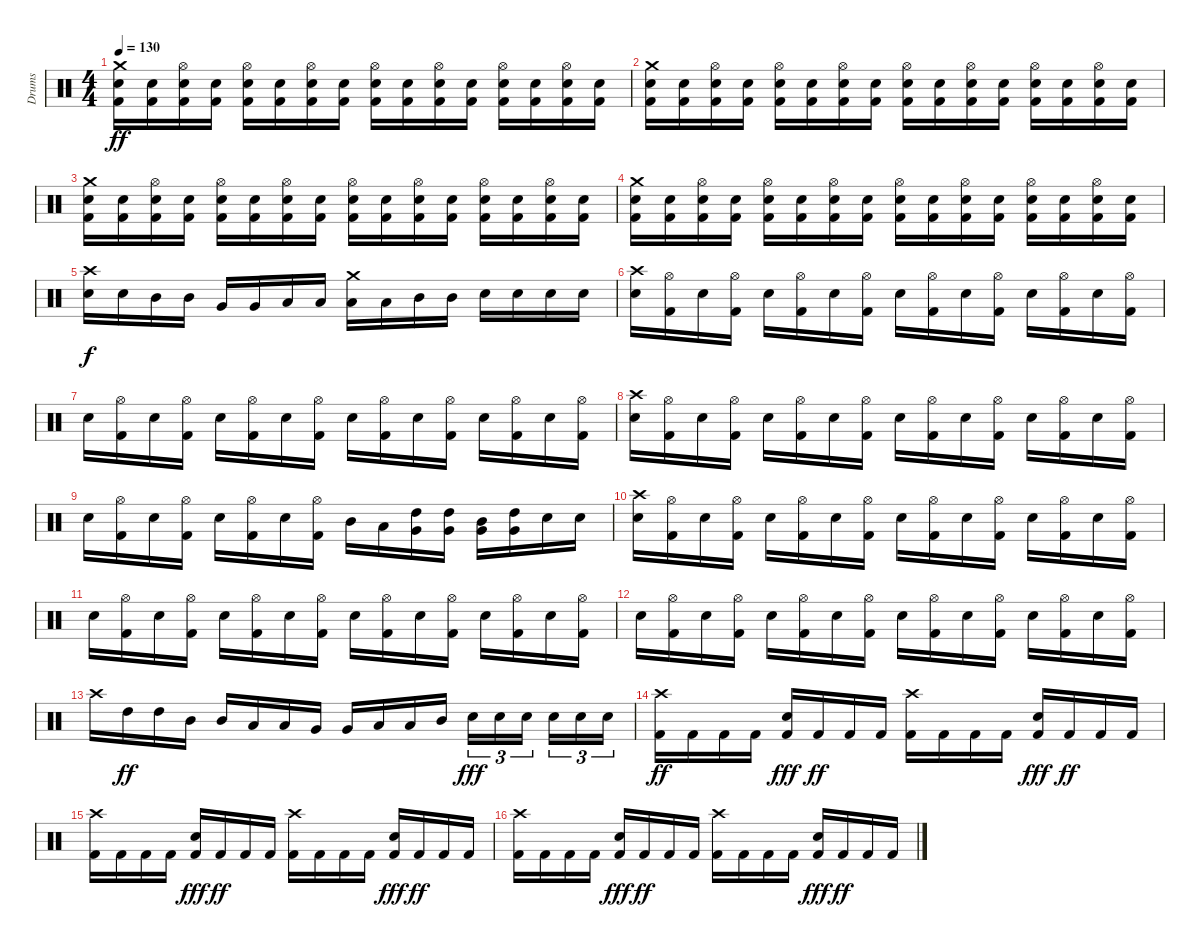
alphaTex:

\track ("Drums" "Drums") {instrument percussion}
\staff {score}
\articulation defaults
\ts (4 4)
\tempo 130
\clef neutral
\ks c
("Kick (hit) 2" "Snare (hit) 2" "Crash medium (hit)").16{dy ff} ("Kick (hit) 2" "Snare (hit) 2").16 ("Kick (hit) 2" "Snare (hit) 2" "Hi-Hat (open)").16 ("Kick (hit) 2" "Snare (hit) 2").16 ("Kick (hit) 2" "Snare (hit) 2" "Hi-Hat (open)").16 ("Kick (hit) 2" "Snare (hit) 2").16 ("Kick (hit) 2" "Snare (hit) 2" "Hi-Hat (open)").16 ("Kick (hit) 2" "Snare (hit) 2").16 ("Kick (hit) 2" "Snare (hit) 2" "Hi-Hat (open)").16 ("Kick (hit) 2" "Snare (hit) 2").16 ("Kick (hit) 2" "Snare (hit) 2" "Hi-Hat (open)").16 ("Kick (hit) 2" "Snare (hit) 2").16 ("Kick (hit) 2" "Snare (hit) 2" "Hi-Hat (open)").16 ("Kick (hit) 2" "Snare (hit) 2").16 ("Kick (hit) 2" "Snare (hit) 2" "Hi-Hat (open)").16 ("Kick (hit) 2" "Snare (hit) 2").16 |
("Kick (hit) 2" "Snare (hit) 2" "Crash medium (hit)").16 ("Kick (hit) 2" "Snare (hit) 2").16 ("Kick (hit) 2" "Snare (hit) 2" "Hi-Hat (open)").16 ("Kick (hit) 2" "Snare (hit) 2").16 ("Kick (hit) 2" "Snare (hit) 2" "Hi-Hat (open)").16 ("Kick (hit) 2" "Snare (hit) 2").16 ("Kick (hit) 2" "Snare (hit) 2" "Hi-Hat (open)").16 ("Kick (hit) 2" "Snare (hit) 2").16 ("Kick (hit) 2" "Snare (hit) 2" "Hi-Hat (open)").16 ("Kick (hit) 2" "Snare (hit) 2").16 ("Kick (hit) 2" "Snare (hit) 2" "Hi-Hat (open)").16 ("Kick (hit) 2" "Snare (hit) 2").16 ("Kick (hit) 2" "Snare (hit) 2" "Hi-Hat (open)").16 ("Kick (hit) 2" "Snare (hit) 2").16 ("Kick (hit) 2" "Snare (hit) 2" "Hi-Hat (open)").16 ("Kick (hit) 2" "Snare (hit) 2").16 |
("Kick (hit) 2" "Snare (hit) 2" "Crash medium (hit)").16 ("Kick (hit) 2" "Snare (hit) 2").16 ("Kick (hit) 2" "Snare (hit) 2" "Hi-Hat (open)").16 ("Kick (hit) 2" "Snare (hit) 2").16 ("Kick (hit) 2" "Snare (hit) 2" "Hi-Hat (open)").16 ("Kick (hit) 2" "Snare (hit) 2").16 ("Kick (hit) 2" "Snare (hit) 2" "Hi-Hat (open)").16 ("Kick (hit) 2" "Snare (hit) 2").16 ("Kick (hit) 2" "Snare (hit) 2" "Hi-Hat (open)").16 ("Kick (hit) 2" "Snare (hit) 2").16 ("Kick (hit) 2" "Snare (hit) 2" "Hi-Hat (open)").16 ("Kick (hit) 2" "Snare (hit) 2").16 ("Kick (hit) 2" "Snare (hit) 2" "Hi-Hat (open)").16 ("Kick (hit) 2" "Snare (hit) 2").16 ("Kick (hit) 2" "Snare (hit) 2" "Hi-Hat (open)").16 ("Kick (hit) 2" "Snare (hit) 2").16 |
("Kick (hit) 2" "Snare (hit) 2" "Crash medium (hit)").16 ("Kick (hit) 2" "Snare (hit) 2").16 ("Kick (hit) 2" "Snare (hit) 2" "Hi-Hat (open)").16 ("Kick (hit) 2" "Snare (hit) 2").16 ("Kick (hit) 2" "Snare (hit) 2" "Hi-Hat (open)").16 ("Kick (hit) 2" "Snare (hit) 2").16 ("Kick (hit) 2" "Snare (hit) 2" "Hi-Hat (open)").16 ("Kick (hit) 2" "Snare (hit) 2").16 ("Kick (hit) 2" "Snare (hit) 2" "Hi-Hat (open)").16 ("Kick (hit) 2" "Snare (hit) 2").16 ("Kick (hit) 2" "Snare (hit) 2" "Hi-Hat (open)").16 ("Kick (hit) 2" "Snare (hit) 2").16 ("Kick (hit) 2" "Snare (hit) 2" "Hi-Hat (open)").16 ("Kick (hit) 2" "Snare (hit) 2").16 ("Kick (hit) 2" "Snare (hit) 2" "Hi-Hat (open)").16 ("Kick (hit) 2" "Snare (hit) 2").16 |
("Crash high (hit)" "Snare (hit) 2").16{dy f} "Snare (hit) 2".16 "Mid Tom (hit)".16 "Mid Tom (hit)".16 "Very Low Tom (hit)".16 "Very Low Tom (hit)".16 "Low Tom (hit)".16 "Low Tom (hit)".16 ("Low Tom (hit)" "Crash medium (hit)").16 "Low Tom (hit)".16 "Mid Tom (hit)".16 "Mid Tom (hit)".16 "Snare (hit) 2".16 "Snare (hit) 2".16 "Snare (hit) 2".16 "Snare (hit) 2".16 |
("Crash high (hit)" "Snare (hit) 2").16 ("Kick (hit) 2" "Hi-Hat (open)").16 "Snare (hit) 2".16 ("Hi-Hat (open)" "Kick (hit) 2").16 "Snare (hit) 2".16 ("Hi-Hat (open)" "Kick (hit) 2").16 "Snare (hit) 2".16 ("Hi-Hat (open)" "Kick (hit) 2").16 "Snare (hit) 2".16 ("Hi-Hat (open)" "Kick (hit) 2").16 "Snare (hit) 2".16 ("Hi-Hat (open)" "Kick (hit) 2").16 "Snare (hit) 2".16 ("Hi-Hat (open)" "Kick (hit) 2").16 "Snare (hit) 2".16 ("Hi-Hat (open)" "Kick (hit) 2").16 |
"Snare (hit) 2".16 ("Kick (hit) 2" "Hi-Hat (open)").16 "Snare (hit) 2".16 ("Hi-Hat (open)" "Kick (hit) 2").16 "Snare (hit) 2".16 ("Hi-Hat (open)" "Kick (hit) 2").16 "Snare (hit) 2".16 ("Hi-Hat (open)" "Kick (hit) 2").16 "Snare (hit) 2".16 ("Hi-Hat (open)" "Kick (hit) 2").16 "Snare (hit) 2".16 ("Hi-Hat (open)" "Kick (hit) 2").16 "Snare (hit) 2".16 ("Hi-Hat (open)" "Kick (hit) 2").16 "Snare (hit) 2".16 ("Hi-Hat (open)" "Kick (hit) 2").16 |
("Crash high (hit)" "Snare (hit) 2").16 ("Kick (hit) 2" "Hi-Hat (open)").16 "Snare (hit) 2".16 ("Hi-Hat (open)" "Kick (hit) 2").16 "Snare (hit) 2".16 ("Hi-Hat (open)" "Kick (hit) 2").16 "Snare (hit) 2".16 ("Hi-Hat (open)" "Kick (hit) 2").16 "Snare (hit) 2".16 ("Hi-Hat (open)" "Kick (hit) 2").16 "Snare (hit) 2".16 ("Hi-Hat (open)" "Kick (hit) 2").16 "Snare (hit) 2".16 ("Hi-Hat (open)" "Kick (hit) 2").16 "Snare (hit) 2".16 ("Hi-Hat (open)" "Kick (hit) 2").16 |
"Snare (hit) 2".16 ("Kick (hit) 2" "Hi-Hat (open)").16 "Snare (hit) 2".16 ("Hi-Hat (open)" "Kick (hit) 2").16 "Snare (hit) 2".16 ("Hi-Hat (open)" "Kick (hit) 2").16 "Snare (hit) 2".16 ("Hi-Hat (open)" "Kick (hit) 2").16 "Mid Tom (hit)".16 "Low Tom (hit)".16 ("Very Low Tom (hit)" "High Tom (hit)").16 ("Very Low Tom (hit)" "High Tom (hit)").16 ("Very Low Tom (hit)" "Mid Tom (hit)").16 ("High Tom (hit)" "Very Low Tom (hit)").16 "Snare (hit) 2".16 "Snare (hit) 2".16 |
("Crash high (hit)" "Snare (hit) 2").16 ("Kick (hit) 2" "Hi-Hat (open)").16 "Snare (hit) 2".16 ("Hi-Hat (open)" "Kick (hit) 2").16 "Snare (hit) 2".16 ("Hi-Hat (open)" "Kick (hit) 2").16 "Snare (hit) 2".16 ("Hi-Hat (open)" "Kick (hit) 2").16 "Snare (hit) 2".16 ("Hi-Hat (open)" "Kick (hit) 2").16 "Snare (hit) 2".16 ("Hi-Hat (open)" "Kick (hit) 2").16 "Snare (hit) 2".16 ("Hi-Hat (open)" "Kick (hit) 2").16 "Snare (hit) 2".16 ("Hi-Hat (open)" "Kick (hit) 2").16 |
"Snare (hit) 2".16 ("Kick (hit) 2" "Hi-Hat (open)").16 "Snare (hit) 2".16 ("Hi-Hat (open)" "Kick (hit) 2").16 "Snare (hit) 2".16 ("Hi-Hat (open)" "Kick (hit) 2").16 "Snare (hit) 2".16 ("Hi-Hat (open)" "Kick (hit) 2").16 "Snare (hit) 2".16 ("Hi-Hat (open)" "Kick (hit) 2").16 "Snare (hit) 2".16 ("Hi-Hat (open)" "Kick (hit) 2").16 "Snare (hit) 2".16 ("Hi-Hat (open)" "Kick (hit) 2").16 "Snare (hit) 2".16 ("Hi-Hat (open)" "Kick (hit) 2").16 |
"Snare (hit) 2".16 ("Kick (hit) 2" "Hi-Hat (open)").16 "Snare (hit) 2".16 ("Hi-Hat (open)" "Kick (hit) 2").16 "Snare (hit) 2".16 ("Hi-Hat (open)" "Kick (hit) 2").16 "Snare (hit) 2".16 ("Hi-Hat (open)" "Kick (hit) 2").16 "Snare (hit) 2".16 ("Hi-Hat (open)" "Kick (hit) 2").16 "Snare (hit) 2".16 ("Hi-Hat (open)" "Kick (hit) 2").16 "Snare (hit) 2".16 ("Hi-Hat (open)" "Kick (hit) 2").16 "Snare (hit) 2".16 ("Hi-Hat (open)" "Kick (hit) 2").16 |
"Crash high (hit)".16 "High Tom (hit)".16{dy ff} "High Tom (hit)".16 "Mid Tom (hit)".16 "Mid Tom (hit)".16 "Low Tom (hit)".16 "Low Tom (hit)".16 "Very Low Tom (hit)".16 "Very Low Tom (hit)".16 "Low Tom (hit)".16 "Low Tom (hit)".16 "Mid Tom (hit)".16 "Electric Snare (hit)".16{tu (3 2) dy fff} "Electric Snare (hit)".16{tu (3 2)} "Electric Snare (hit)".16{tu (3 2) beam splitsecondary} "Electric Snare (hit)".16{tu (3 2)} "Electric Snare (hit)".16{tu (3 2)} "Electric Snare (hit)".16{tu (3 2)} |
("Kick (hit) 2" "Crash high (hit)").16{dy ff} "Kick (hit) 2".16 "Kick (hit) 2".16 "Kick (hit) 2".16 ("Kick (hit) 2" "Snare (hit) 2").16{dy fff} "Kick (hit) 2".16{dy ff} "Kick (hit) 2".16 "Kick (hit) 2".16 ("Kick (hit) 2" "Crash high (hit)").16 "Kick (hit) 2".16 "Kick (hit) 2".16 "Kick (hit) 2".16 ("Kick (hit) 2" "Snare (hit) 2").16{dy fff} "Kick (hit) 2".16{dy ff} "Kick (hit) 2".16 "Kick (hit) 2".16 |
("Kick (hit) 2" "Crash high (hit)").16 "Kick (hit) 2".16 "Kick (hit) 2".16 "Kick (hit) 2".16 ("Kick (hit) 2" "Snare (hit) 2").16{dy fff} "Kick (hit) 2".16{dy ff} "Kick (hit) 2".16 "Kick (hit) 2".16 ("Kick (hit) 2" "Crash high (hit)").16 "Kick (hit) 2".16 "Kick (hit) 2".16 "Kick (hit) 2".16 ("Kick (hit) 2" "Snare (hit) 2").16{dy fff} "Kick (hit) 2".16{dy ff} "Kick (hit) 2".16 "Kick (hit) 2".16 |
("Kick (hit) 2" "Crash high (hit)").16 "Kick (hit) 2".16 "Kick (hit) 2".16 "Kick (hit) 2".16 ("Kick (hit) 2" "Snare (hit) 2").16{dy fff} "Kick (hit) 2".16{dy ff} "Kick (hit) 2".16 "Kick (hit) 2".16 ("Kick (hit) 2" "Crash high (hit)").16 "Kick (hit) 2".16 "Kick (hit) 2".16 "Kick (hit) 2".16 ("Kick (hit) 2" "Snare (hit) 2").16{dy fff} "Kick (hit) 2".16{dy ff} "Kick (hit) 2".16 "Kick (hit) 2".16
